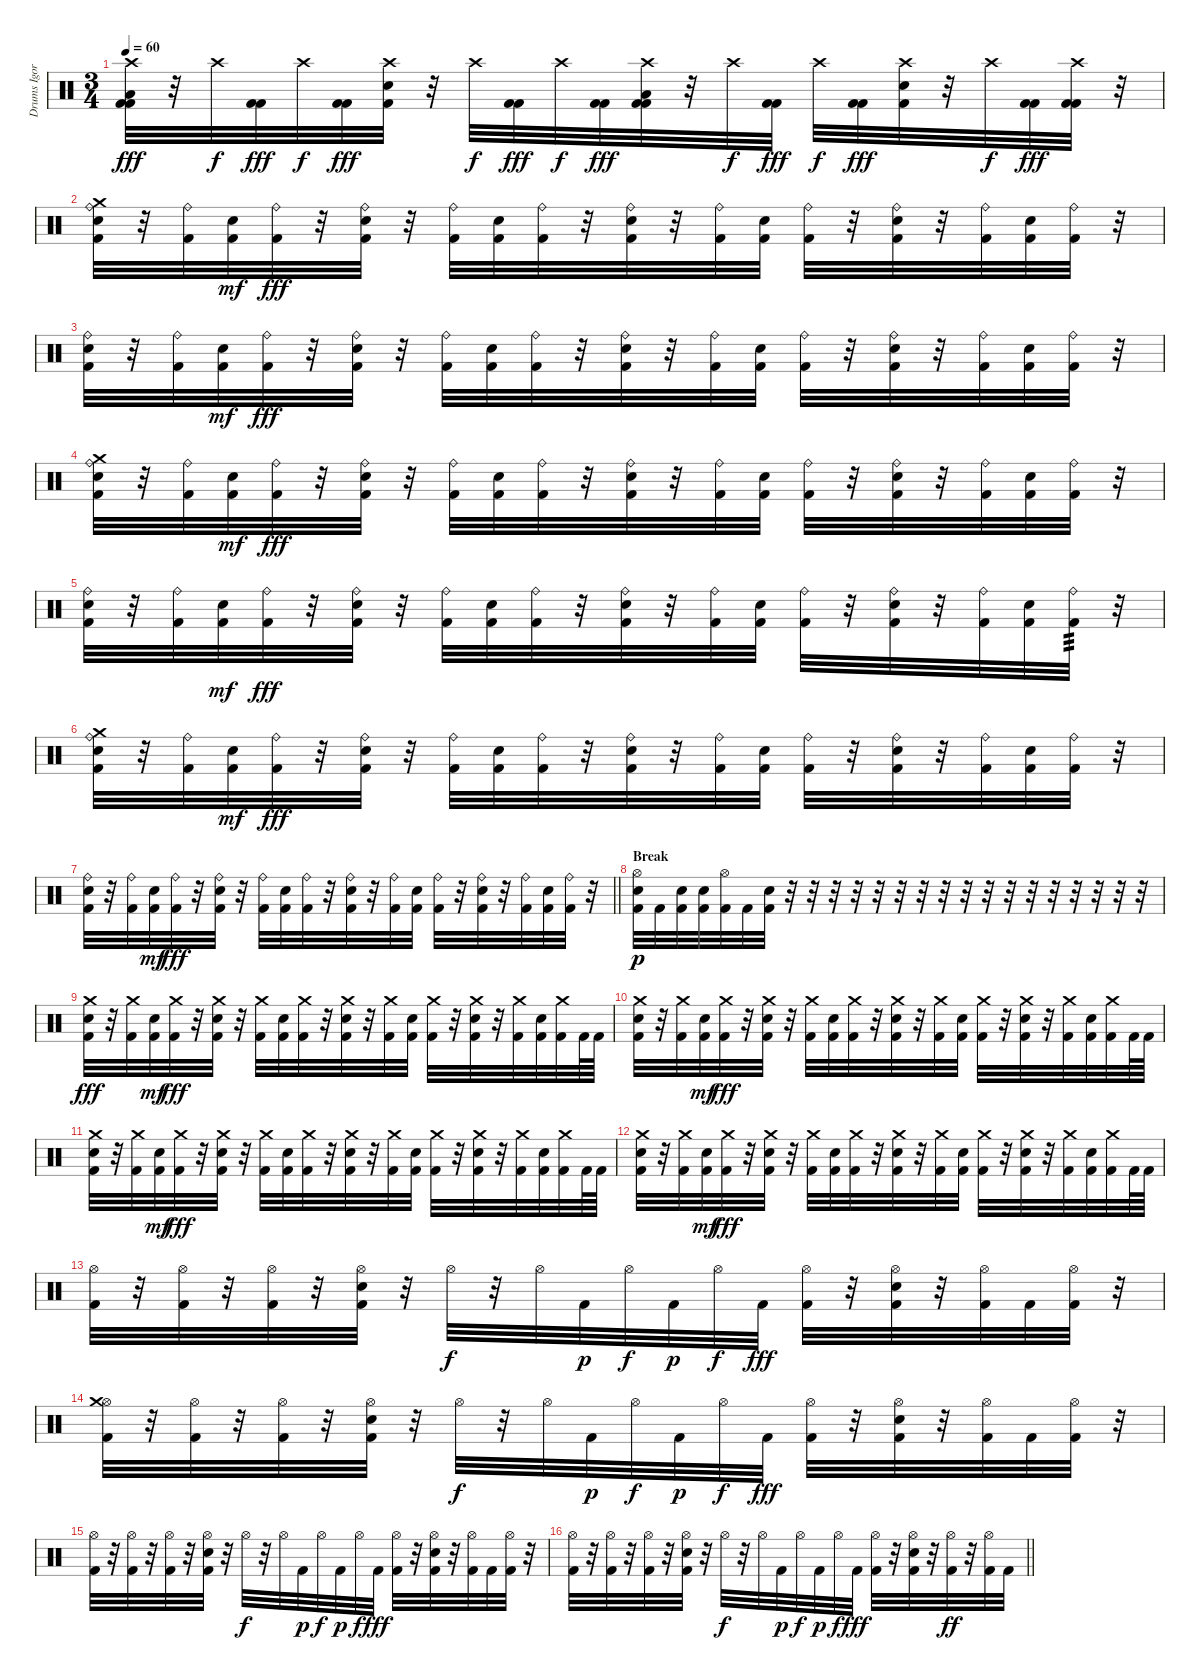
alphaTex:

\track ("Drums Igor" "Drums Igor") {instrument percussion}
\staff {score}
\articulation defaults
\ts (3 4)
\tempo 60
\clef neutral
\ks c
("Crash high (hit)" "Low Floor Tom (hit)" "Kick (hit) 2" "Kick (hit) 2").32{dy fff} r.32 "Crash high (hit)".32{dy f} ("Kick (hit) 2" "Kick (hit) 2").32{dy fff} "Crash high (hit)".32{dy f} ("Kick (hit) 2" "Kick (hit) 2").32{dy fff} ("Crash high (hit)" "Electric Snare (hit)" "Kick (hit) 2").32 r.32 "Crash high (hit)".32{dy f} ("Kick (hit) 2" "Kick (hit) 2").32{dy fff} "Crash high (hit)".32{dy f} ("Kick (hit) 2" "Kick (hit) 2").32{dy fff} ("Crash high (hit)" "Low Floor Tom (hit)" "Kick (hit) 2" "Kick (hit) 2").32 r.32 "Crash high (hit)".32{dy f} ("Kick (hit) 2" "Kick (hit) 2").32{dy fff} "Crash high (hit)".32{dy f} ("Kick (hit) 2" "Kick (hit) 2").32{dy fff} ("Crash high (hit)" "Electric Snare (hit)" "Kick (hit) 2").32 r.32 "Crash high (hit)".32{dy f} ("Kick (hit) 2" "Kick (hit) 2").32{dy fff} ("Crash high (hit)" "Kick (hit) 2" "Kick (hit) 2").32 r.32 |
("Ride (bell)" "Crash medium (hit)" "Electric Snare (hit)" "Kick (hit) 2").32 r.32 ("Ride (bell)" "Kick (hit) 2").32 ("Electric Snare (hit)" "Kick (hit) 2").32{dy mf} ("Ride (bell)" "Kick (hit) 2").32{dy fff} r.32 ("Ride (bell)" "Electric Snare (hit)" "Kick (hit) 2").32 r.32 ("Ride (bell)" "Kick (hit) 2").32 ("Electric Snare (hit)" "Kick (hit) 2").32 ("Ride (bell)" "Kick (hit) 2").32 r.32 ("Ride (bell)" "Electric Snare (hit)" "Kick (hit) 2").32 r.32 ("Ride (bell)" "Kick (hit) 2").32 ("Electric Snare (hit)" "Kick (hit) 2").32 ("Ride (bell)" "Kick (hit) 2").32 r.32 ("Ride (bell)" "Electric Snare (hit)" "Kick (hit) 2").32 r.32 ("Ride (bell)" "Kick (hit) 2").32 ("Electric Snare (hit)" "Kick (hit) 2").32 ("Ride (bell)" "Kick (hit) 2").32 r.32 |
("Ride (bell)" "Electric Snare (hit)" "Kick (hit) 2").32 r.32 ("Ride (bell)" "Kick (hit) 2").32 ("Electric Snare (hit)" "Kick (hit) 2").32{dy mf} ("Ride (bell)" "Kick (hit) 2").32{dy fff} r.32 ("Ride (bell)" "Electric Snare (hit)" "Kick (hit) 2").32 r.32 ("Ride (bell)" "Kick (hit) 2").32 ("Electric Snare (hit)" "Kick (hit) 2").32 ("Ride (bell)" "Kick (hit) 2").32 r.32 ("Ride (bell)" "Electric Snare (hit)" "Kick (hit) 2").32 r.32 ("Ride (bell)" "Kick (hit) 2").32 ("Electric Snare (hit)" "Kick (hit) 2").32 ("Ride (bell)" "Kick (hit) 2").32 r.32 ("Ride (bell)" "Electric Snare (hit)" "Kick (hit) 2").32 r.32 ("Ride (bell)" "Kick (hit) 2").32 ("Electric Snare (hit)" "Kick (hit) 2").32 ("Ride (bell)" "Kick (hit) 2").32 r.32 |
("Ride (bell)" "Crash medium (hit)" "Electric Snare (hit)" "Kick (hit) 2").32 r.32 ("Ride (bell)" "Kick (hit) 2").32 ("Electric Snare (hit)" "Kick (hit) 2").32{dy mf} ("Ride (bell)" "Kick (hit) 2").32{dy fff} r.32 ("Ride (bell)" "Electric Snare (hit)" "Kick (hit) 2").32 r.32 ("Ride (bell)" "Kick (hit) 2").32 ("Electric Snare (hit)" "Kick (hit) 2").32 ("Ride (bell)" "Kick (hit) 2").32 r.32 ("Ride (bell)" "Electric Snare (hit)" "Kick (hit) 2").32 r.32 ("Ride (bell)" "Kick (hit) 2").32 ("Electric Snare (hit)" "Kick (hit) 2").32 ("Ride (bell)" "Kick (hit) 2").32 r.32 ("Ride (bell)" "Electric Snare (hit)" "Kick (hit) 2").32 r.32 ("Ride (bell)" "Kick (hit) 2").32 ("Electric Snare (hit)" "Kick (hit) 2").32 ("Ride (bell)" "Kick (hit) 2").32 r.32 |
("Ride (bell)" "Electric Snare (hit)" "Kick (hit) 2").32 r.32 ("Ride (bell)" "Kick (hit) 2").32 ("Electric Snare (hit)" "Kick (hit) 2").32{dy mf} ("Ride (bell)" "Kick (hit) 2").32{dy fff} r.32 ("Ride (bell)" "Electric Snare (hit)" "Kick (hit) 2").32 r.32 ("Ride (bell)" "Kick (hit) 2").32 ("Electric Snare (hit)" "Kick (hit) 2").32 ("Ride (bell)" "Kick (hit) 2").32 r.32 ("Ride (bell)" "Electric Snare (hit)" "Kick (hit) 2").32 r.32 ("Ride (bell)" "Kick (hit) 2").32 ("Electric Snare (hit)" "Kick (hit) 2").32 ("Ride (bell)" "Kick (hit) 2").32 r.32 ("Ride (bell)" "Electric Snare (hit)" "Kick (hit) 2").32 r.32 ("Ride (bell)" "Kick (hit) 2").32 ("Electric Snare (hit)" "Kick (hit) 2").32 ("Ride (bell)" "Kick (hit) 2").32{tp 3} r.32 |
("Ride (bell)" "Crash medium (hit)" "Electric Snare (hit)" "Kick (hit) 2").32 r.32 ("Ride (bell)" "Kick (hit) 2").32 ("Electric Snare (hit)" "Kick (hit) 2").32{dy mf} ("Ride (bell)" "Kick (hit) 2").32{dy fff} r.32 ("Ride (bell)" "Electric Snare (hit)" "Kick (hit) 2").32 r.32 ("Ride (bell)" "Kick (hit) 2").32 ("Electric Snare (hit)" "Kick (hit) 2").32 ("Ride (bell)" "Kick (hit) 2").32 r.32 ("Ride (bell)" "Electric Snare (hit)" "Kick (hit) 2").32 r.32 ("Ride (bell)" "Kick (hit) 2").32 ("Electric Snare (hit)" "Kick (hit) 2").32 ("Ride (bell)" "Kick (hit) 2").32 r.32 ("Ride (bell)" "Electric Snare (hit)" "Kick (hit) 2").32 r.32 ("Ride (bell)" "Kick (hit) 2").32 ("Electric Snare (hit)" "Kick (hit) 2").32 ("Ride (bell)" "Kick (hit) 2").32 r.32 |
\barLineRight lightlight
("Ride (bell)" "Electric Snare (hit)" "Kick (hit) 2").32 r.32 ("Ride (bell)" "Kick (hit) 2").32 ("Electric Snare (hit)" "Kick (hit) 2").32{dy mf} ("Ride (bell)" "Kick (hit) 2").32{dy fff} r.32 ("Ride (bell)" "Electric Snare (hit)" "Kick (hit) 2").32 r.32 ("Ride (bell)" "Kick (hit) 2").32 ("Electric Snare (hit)" "Kick (hit) 2").32 ("Ride (bell)" "Kick (hit) 2").32 r.32 ("Ride (bell)" "Electric Snare (hit)" "Kick (hit) 2").32 r.32 ("Ride (bell)" "Kick (hit) 2").32 ("Electric Snare (hit)" "Kick (hit) 2").32 ("Ride (bell)" "Kick (hit) 2").32 r.32 ("Ride (bell)" "Electric Snare (hit)" "Kick (hit) 2").32 r.32 ("Ride (bell)" "Kick (hit) 2").32 ("Electric Snare (hit)" "Kick (hit) 2").32 ("Ride (bell)" "Kick (hit) 2").32 r.32 |
\section ("" "Break")
("Hi-Hat (open)" "Electric Snare (hit)" "Kick (hit) 2").32{dy p} "Kick (hit) 2".32 ("Electric Snare (hit)" "Kick (hit) 2").32 ("Electric Snare (hit)" "Kick (hit) 2").32 ("Hi-Hat (open)" "Kick (hit) 2").32 "Kick (hit) 2".32 ("Electric Snare (hit)" "Kick (hit) 2").32 r.32 r.32 r.32 r.32 r.32 r.32 r.32 r.32 r.32 r.32 r.32 r.32 r.32 r.32 r.32 r.32 r.32 |
("Crash medium (hit)" "Electric Snare (hit)" "Kick (hit) 2").32{dy fff} r.32 ("Crash medium (hit)" "Kick (hit) 2").32 ("Electric Snare (hit)" "Kick (hit) 2").32{dy mf} ("Crash medium (hit)" "Kick (hit) 2").32{dy fff} r.32 ("Crash medium (hit)" "Electric Snare (hit)" "Kick (hit) 2").32 r.32 ("Crash medium (hit)" "Kick (hit) 2").32 ("Electric Snare (hit)" "Kick (hit) 2").32 ("Crash medium (hit)" "Kick (hit) 2").32 r.32 ("Crash medium (hit)" "Electric Snare (hit)" "Kick (hit) 2").32 r.32 ("Crash medium (hit)" "Kick (hit) 2").32 ("Electric Snare (hit)" "Kick (hit) 2").32 ("Crash medium (hit)" "Kick (hit) 2").32 r.32 ("Crash medium (hit)" "Electric Snare (hit)" "Kick (hit) 2").32 r.32 ("Crash medium (hit)" "Kick (hit) 2").32 ("Electric Snare (hit)" "Kick (hit) 2").32 ("Crash medium (hit)" "Kick (hit) 2").32 "Kick (hit) 2".64 "Kick (hit) 2".64 |
("Crash medium (hit)" "Electric Snare (hit)" "Kick (hit) 2").32 r.32 ("Crash medium (hit)" "Kick (hit) 2").32 ("Electric Snare (hit)" "Kick (hit) 2").32{dy mf} ("Crash medium (hit)" "Kick (hit) 2").32{dy fff} r.32 ("Crash medium (hit)" "Electric Snare (hit)" "Kick (hit) 2").32 r.32 ("Crash medium (hit)" "Kick (hit) 2").32 ("Electric Snare (hit)" "Kick (hit) 2").32 ("Crash medium (hit)" "Kick (hit) 2").32 r.32 ("Crash medium (hit)" "Electric Snare (hit)" "Kick (hit) 2").32 r.32 ("Crash medium (hit)" "Kick (hit) 2").32 ("Electric Snare (hit)" "Kick (hit) 2").32 ("Crash medium (hit)" "Kick (hit) 2").32 r.32 ("Crash medium (hit)" "Electric Snare (hit)" "Kick (hit) 2").32 r.32 ("Crash medium (hit)" "Kick (hit) 2").32 ("Electric Snare (hit)" "Kick (hit) 2").32 ("Crash medium (hit)" "Kick (hit) 2").32 "Kick (hit) 2".64 "Kick (hit) 2".64 |
("Crash medium (hit)" "Electric Snare (hit)" "Kick (hit) 2").32 r.32 ("Crash medium (hit)" "Kick (hit) 2").32 ("Electric Snare (hit)" "Kick (hit) 2").32{dy mf} ("Crash medium (hit)" "Kick (hit) 2").32{dy fff} r.32 ("Crash medium (hit)" "Electric Snare (hit)" "Kick (hit) 2").32 r.32 ("Crash medium (hit)" "Kick (hit) 2").32 ("Electric Snare (hit)" "Kick (hit) 2").32 ("Crash medium (hit)" "Kick (hit) 2").32 r.32 ("Crash medium (hit)" "Electric Snare (hit)" "Kick (hit) 2").32 r.32 ("Crash medium (hit)" "Kick (hit) 2").32 ("Electric Snare (hit)" "Kick (hit) 2").32 ("Crash medium (hit)" "Kick (hit) 2").32 r.32 ("Crash medium (hit)" "Electric Snare (hit)" "Kick (hit) 2").32 r.32 ("Crash medium (hit)" "Kick (hit) 2").32 ("Electric Snare (hit)" "Kick (hit) 2").32 ("Crash medium (hit)" "Kick (hit) 2").32 "Kick (hit) 2".64 "Kick (hit) 2".64 |
("Crash medium (hit)" "Electric Snare (hit)" "Kick (hit) 2").32 r.32 ("Crash medium (hit)" "Kick (hit) 2").32 ("Electric Snare (hit)" "Kick (hit) 2").32{dy mf} ("Crash medium (hit)" "Kick (hit) 2").32{dy fff} r.32 ("Crash medium (hit)" "Electric Snare (hit)" "Kick (hit) 2").32 r.32 ("Crash medium (hit)" "Kick (hit) 2").32 ("Electric Snare (hit)" "Kick (hit) 2").32 ("Crash medium (hit)" "Kick (hit) 2").32 r.32 ("Crash medium (hit)" "Electric Snare (hit)" "Kick (hit) 2").32 r.32 ("Crash medium (hit)" "Kick (hit) 2").32 ("Electric Snare (hit)" "Kick (hit) 2").32 ("Crash medium (hit)" "Kick (hit) 2").32 r.32 ("Crash medium (hit)" "Electric Snare (hit)" "Kick (hit) 2").32 r.32 ("Crash medium (hit)" "Kick (hit) 2").32 ("Electric Snare (hit)" "Kick (hit) 2").32 ("Crash medium (hit)" "Kick (hit) 2").32 "Kick (hit) 2".64 "Kick (hit) 2".64 |
("Hi-Hat (open)" "Kick (hit) 2").32 r.32 ("Hi-Hat (open)" "Kick (hit) 2").32 r.32 ("Hi-Hat (open)" "Kick (hit) 2").32 r.32 ("Hi-Hat (open)" "Electric Snare (hit)" "Kick (hit) 2").32 r.32 "Hi-Hat (open)".32{dy f} r.32 "Hi-Hat (open)".32 "Kick (hit) 2".32{dy p} "Hi-Hat (open)".32{dy f} "Kick (hit) 2".32{dy p} "Hi-Hat (open)".32{dy f} "Kick (hit) 2".32{dy fff} ("Hi-Hat (open)" "Kick (hit) 2").32 r.32 ("Hi-Hat (open)" "Electric Snare (hit)" "Kick (hit) 2").32 r.32 ("Hi-Hat (open)" "Kick (hit) 2").32 "Kick (hit) 2".32 ("Hi-Hat (open)" "Kick (hit) 2").32 r.32 |
("Hi-Hat (open)" "Crash medium (hit)" "Kick (hit) 2").32 r.32 ("Hi-Hat (open)" "Kick (hit) 2").32 r.32 ("Hi-Hat (open)" "Kick (hit) 2").32 r.32 ("Hi-Hat (open)" "Electric Snare (hit)" "Kick (hit) 2").32 r.32 "Hi-Hat (open)".32{dy f} r.32 "Hi-Hat (open)".32 "Kick (hit) 2".32{dy p} "Hi-Hat (open)".32{dy f} "Kick (hit) 2".32{dy p} "Hi-Hat (open)".32{dy f} "Kick (hit) 2".32{dy fff} ("Hi-Hat (open)" "Kick (hit) 2").32 r.32 ("Hi-Hat (open)" "Electric Snare (hit)" "Kick (hit) 2").32 r.32 ("Hi-Hat (open)" "Kick (hit) 2").32 "Kick (hit) 2".32 ("Hi-Hat (open)" "Kick (hit) 2").32 r.32 |
("Hi-Hat (open)" "Kick (hit) 2").32 r.32 ("Hi-Hat (open)" "Kick (hit) 2").32 r.32 ("Hi-Hat (open)" "Kick (hit) 2").32 r.32 ("Hi-Hat (open)" "Electric Snare (hit)" "Kick (hit) 2").32 r.32 "Hi-Hat (open)".32{dy f} r.32 "Hi-Hat (open)".32 "Kick (hit) 2".32{dy p} "Hi-Hat (open)".32{dy f} "Kick (hit) 2".32{dy p} "Hi-Hat (open)".32{dy f} "Kick (hit) 2".32{dy fff} ("Hi-Hat (open)" "Kick (hit) 2").32 r.32 ("Hi-Hat (open)" "Electric Snare (hit)" "Kick (hit) 2").32 r.32 ("Hi-Hat (open)" "Kick (hit) 2").32 "Kick (hit) 2".32 ("Hi-Hat (open)" "Kick (hit) 2").32 r.32 |
\barLineRight lightlight
("Hi-Hat (open)" "Kick (hit) 2").32 r.32 ("Hi-Hat (open)" "Kick (hit) 2").32 r.32 ("Hi-Hat (open)" "Kick (hit) 2").32 r.32 ("Hi-Hat (open)" "Electric Snare (hit)" "Kick (hit) 2").32 r.32 "Hi-Hat (open)".32{dy f} r.32 "Hi-Hat (open)".32 "Kick (hit) 2".32{dy p} "Hi-Hat (open)".32{dy f} "Kick (hit) 2".32{dy p} "Hi-Hat (open)".32{dy f} "Kick (hit) 2".32{dy fff} ("Hi-Hat (open)" "Kick (hit) 2").32 r.32 ("Hi-Hat (open)" "Electric Snare (hit)" "Kick (hit) 2").32 r.32 ("Hi-Hat (open)" "Kick (hit) 2").32{dy ff} r.32 ("Hi-Hat (open)" "Kick (hit) 2").32 "Kick (hit) 2".32
